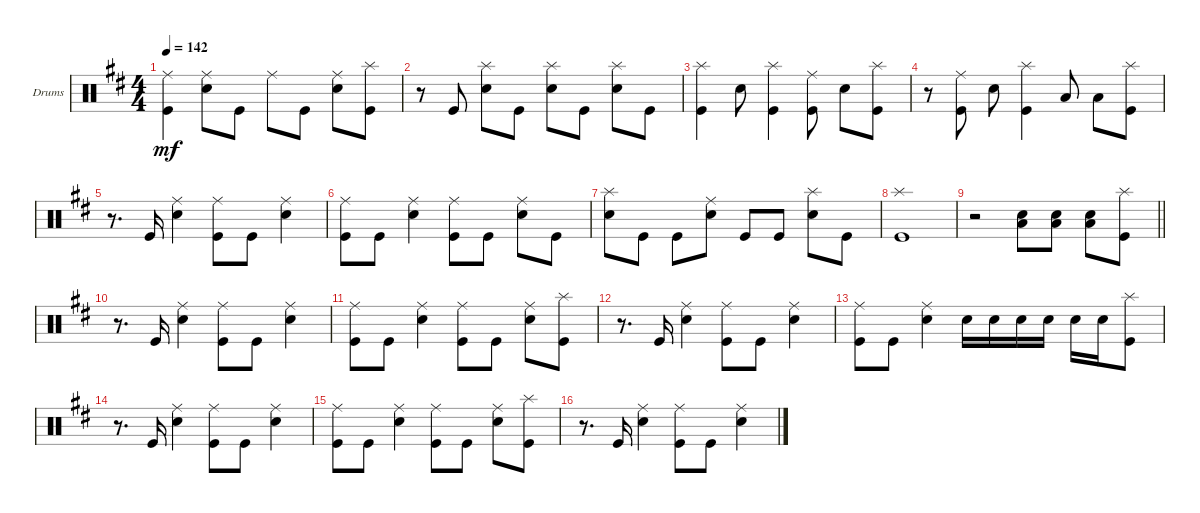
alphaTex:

\defaultSystemsLayout 4
\bracketExtendMode groupsimilarinstruments
\firstSystemTrackNameOrientation horizontal
\otherSystemsTrackNameOrientation horizontal
\track ("Drums" "Drums") {instrument percussion}
\staff {score}
\articulation defaults
\ts (4 4)
\tempo 142
\clef neutral
\ks d
("Ride (middle)" "Kick (hit)").4{dy mf} ("Snare (hit) 2" "Ride (middle)").8 "Kick (hit)".8 "Ride (middle)".8 "Kick (hit)".8 ("Snare (hit) 2" "Ride (middle)").8 ("Splash (hit)" "Kick (hit)").8 |
r.8 "Kick (hit)".8 ("Snare (hit) 2" "Splash (hit)").8 "Kick (hit)".8 ("Snare (hit) 2" "Splash (hit)").8 "Kick (hit)".8 ("Snare (hit) 2" "Splash (hit)").8 "Kick (hit)".8 |
("Splash (hit)" "Kick (hit)").4 "Snare (hit) 2".8 ("Splash (hit)" "Kick (hit)").4 ("Ride (middle)" "Kick (hit)").8 "Snare (hit) 2".8 ("Splash (hit)" "Kick (hit)").8 |
r.8 ("Ride (middle)" "Kick (hit)").8 "Snare (hit) 2".8 ("Splash (hit)" "Kick (hit)").4 "Low Tom (hit)".8 "Low Tom (hit)".8 ("Kick (hit)" "Splash (hit)").8 |
r.8{d} "Kick (hit)".16 ("Snare (hit) 2" "Ride (middle)").4 ("Kick (hit)" "Ride (middle)").8 "Kick (hit)".8 ("Snare (hit) 2" "Ride (middle)").4 |
("Kick (hit)" "Ride (middle)").8 "Kick (hit)".8 ("Snare (hit) 2" "Ride (middle)").4 ("Kick (hit)" "Ride (middle)").8 "Kick (hit)".8 ("Snare (hit) 2" "Ride (middle)").8 "Kick (hit)".8 |
("Snare (hit) 2" "Splash (hit)").8 "Kick (hit)".8 "Kick (hit)".8 ("Snare (hit) 2" "Ride (middle)").8 "Kick (hit)".8 "Kick (hit)".8 ("Snare (hit) 2" "Splash (hit)").8 "Kick (hit)".8 |
("Kick (hit)" "Splash (hit)").1 |
\barLineRight lightlight
r.2 ("Snare (hit) 2" "Low Tom (hit)").8 ("Snare (hit) 2" "Low Tom (hit)").8 ("Snare (hit) 2" "Low Tom (hit)").8 ("Kick (hit)" "Splash (hit)").8 |
r.8{d} "Kick (hit)".16 ("Snare (hit) 2" "Ride (middle)").4 ("Kick (hit)" "Ride (middle)").8 "Kick (hit)".8 ("Snare (hit) 2" "Ride (middle)").4 |
("Kick (hit)" "Ride (middle)").8 "Kick (hit)".8 ("Snare (hit) 2" "Ride (middle)").4 ("Kick (hit)" "Ride (middle)").8 "Kick (hit)".8 ("Snare (hit) 2" "Ride (middle)").8 ("Kick (hit)" "Splash (hit)").8 |
r.8{d} "Kick (hit)".16 ("Snare (hit) 2" "Ride (middle)").4 ("Kick (hit)" "Ride (middle)").8 "Kick (hit)".8 ("Snare (hit) 2" "Ride (middle)").4 |
("Kick (hit)" "Ride (middle)").8 "Kick (hit)".8 ("Snare (hit) 2" "Ride (middle)").4 "Snare (hit) 2".16 "Snare (hit) 2".16 "Snare (hit) 2".16 "Snare (hit) 2".16 "Snare (hit) 2".16 "Snare (hit) 2".16 ("Kick (hit)" "Splash (hit)").8 |
r.8{d} "Kick (hit)".16 ("Snare (hit) 2" "Ride (middle)").4 ("Kick (hit)" "Ride (middle)").8 "Kick (hit)".8 ("Snare (hit) 2" "Ride (middle)").4 |
("Kick (hit)" "Ride (middle)").8 "Kick (hit)".8 ("Snare (hit) 2" "Ride (middle)").4 ("Kick (hit)" "Ride (middle)").8 "Kick (hit)".8 ("Snare (hit) 2" "Ride (middle)").8 ("Kick (hit)" "Splash (hit)").8 |
r.8{d} "Kick (hit)".16 ("Snare (hit) 2" "Ride (middle)").4 ("Kick (hit)" "Ride (middle)").8 "Kick (hit)".8 ("Snare (hit) 2" "Ride (middle)").4
